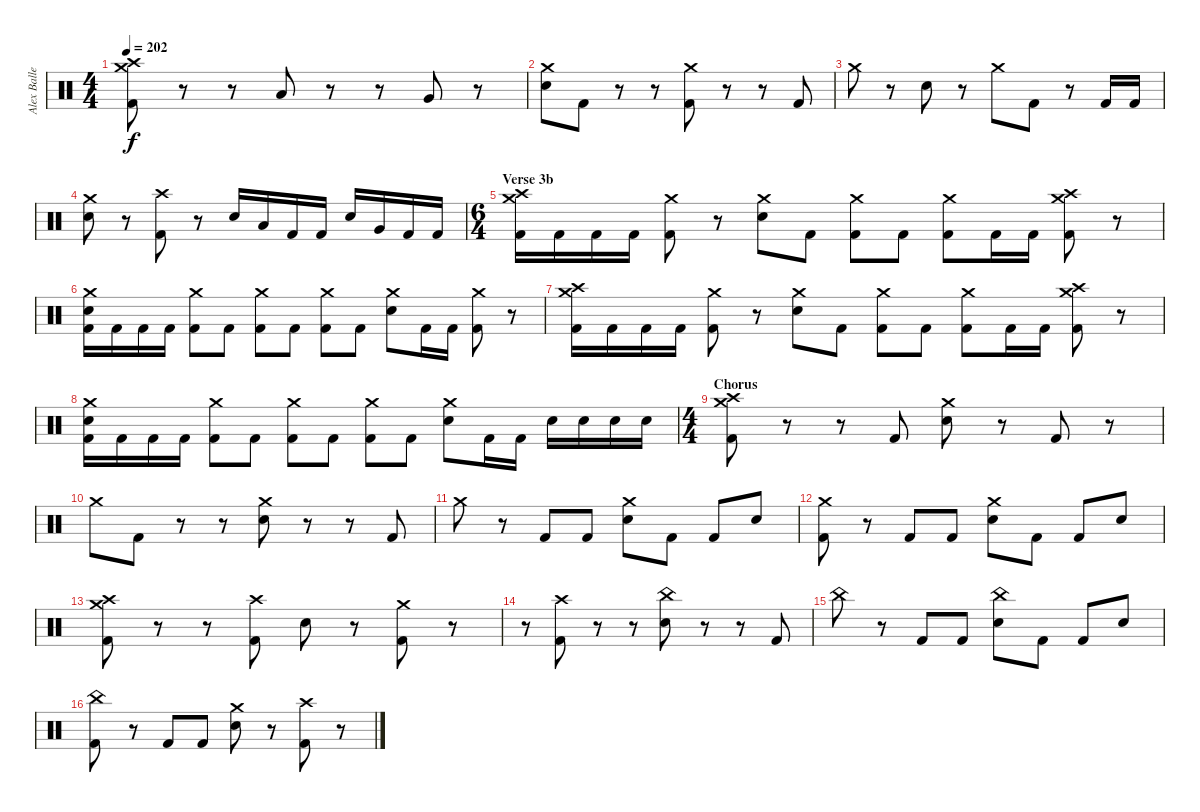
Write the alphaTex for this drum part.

\track ("Alex Ballew" "Alex Balle") {instrument percussion}
\staff {score}
\articulation defaults
\ts (4 4)
\tempo 202
\clef neutral
\ks c
("Crash medium (hit)" "Crash high (hit)" "Kick (hit) 2").8{dy f} r.8 r.8 "Low Tom (hit)".8 r.8 r.8 "Very Low Tom (hit)".8 r.8 |
("Crash medium (hit)" "Electric Snare (hit)").8 "Kick (hit) 2".8 r.8 r.8 ("Crash medium (hit)" "Kick (hit) 2").8 r.8 r.8 "Kick (hit) 2".8 |
"Crash medium (hit)".8 r.8 "Electric Snare (hit)".8 r.8 "Crash medium (hit)".8 "Kick (hit) 2".8 r.8 "Kick (hit) 2".16 "Kick (hit) 2".16 |
("Crash medium (hit)" "Electric Snare (hit)").8 r.8 ("Crash high (hit)" "Kick (hit) 2").8 r.8 "Electric Snare (hit)".16 "Low Tom (hit)".16 "Kick (hit) 2".16 "Kick (hit) 2".16 "Electric Snare (hit)".16 "Very Low Tom (hit)".16 "Kick (hit) 2".16 "Kick (hit) 2".16 |
\ts (6 4)
\section ("" "Verse 3b")
("Crash medium (hit)" "Crash high (hit)" "Kick (hit) 2").16 "Kick (hit) 2".16 "Kick (hit) 2".16 "Kick (hit) 2".16 ("Crash medium (hit)" "Kick (hit) 2").8 r.8 ("Crash medium (hit)" "Electric Snare (hit)").8 "Kick (hit) 2".8 ("Crash medium (hit)" "Kick (hit) 2").8 "Kick (hit) 2".8 ("Crash medium (hit)" "Kick (hit) 2").8 "Kick (hit) 2".16 "Kick (hit) 2".16 ("Crash medium (hit)" "Crash high (hit)" "Kick (hit) 2").8 r.8 |
("Crash medium (hit)" "Electric Snare (hit)" "Kick (hit) 2").16 "Kick (hit) 2".16 "Kick (hit) 2".16 "Kick (hit) 2".16 ("Crash medium (hit)" "Kick (hit) 2").8 "Kick (hit) 2".8 ("Crash medium (hit)" "Kick (hit) 2").8 "Kick (hit) 2".8 ("Crash medium (hit)" "Kick (hit) 2").8 "Kick (hit) 2".8 ("Crash medium (hit)" "Electric Snare (hit)").8 "Kick (hit) 2".16 "Kick (hit) 2".16 ("Crash medium (hit)" "Kick (hit) 2").8 r.8 |
("Crash medium (hit)" "Crash high (hit)" "Kick (hit) 2").16 "Kick (hit) 2".16 "Kick (hit) 2".16 "Kick (hit) 2".16 ("Crash medium (hit)" "Kick (hit) 2").8 r.8 ("Crash medium (hit)" "Electric Snare (hit)").8 "Kick (hit) 2".8 ("Crash medium (hit)" "Kick (hit) 2").8 "Kick (hit) 2".8 ("Crash medium (hit)" "Kick (hit) 2").8 "Kick (hit) 2".16 "Kick (hit) 2".16 ("Crash medium (hit)" "Crash high (hit)" "Kick (hit) 2").8 r.8 |
("Crash medium (hit)" "Electric Snare (hit)" "Kick (hit) 2").16 "Kick (hit) 2".16 "Kick (hit) 2".16 "Kick (hit) 2".16 ("Crash medium (hit)" "Kick (hit) 2").8 "Kick (hit) 2".8 ("Crash medium (hit)" "Kick (hit) 2").8 "Kick (hit) 2".8 ("Crash medium (hit)" "Kick (hit) 2").8 "Kick (hit) 2".8 ("Crash medium (hit)" "Electric Snare (hit)").8 "Kick (hit) 2".16 "Kick (hit) 2".16 "Electric Snare (hit)".16 "Electric Snare (hit)".16 "Electric Snare (hit)".16 "Electric Snare (hit)".16 |
\ts (4 4)
\section ("" "Chorus")
("Crash medium (hit)" "Crash high (hit)" "Kick (hit) 2").8 r.8 r.8 "Kick (hit) 2".8 ("Crash medium (hit)" "Electric Snare (hit)").8 r.8 "Kick (hit) 2".8 r.8 |
"Crash medium (hit)".8 "Kick (hit) 2".8 r.8 r.8 ("Crash medium (hit)" "Electric Snare (hit)").8 r.8 r.8 "Kick (hit) 2".8 |
"Crash medium (hit)".8 r.8 "Kick (hit) 2".8 "Kick (hit) 2".8 ("Crash medium (hit)" "Electric Snare (hit)").8 "Kick (hit) 2".8 "Kick (hit) 2".8 "Electric Snare (hit)".8 |
("Crash medium (hit)" "Kick (hit) 2").8 r.8 "Kick (hit) 2".8 "Kick (hit) 2".8 ("Crash medium (hit)" "Electric Snare (hit)").8 "Kick (hit) 2".8 "Kick (hit) 2".8 "Electric Snare (hit)".8 |
("Crash medium (hit)" "Crash high (hit)" "Kick (hit) 2").8 r.8 r.8 ("Crash high (hit)" "Kick (hit) 2").8 "Electric Snare (hit)".8 r.8 ("Crash medium (hit)" "Kick (hit) 2").8 r.8 |
r.8 ("Crash high (hit)" "Kick (hit) 2").8 r.8 r.8 ("China (hit)" "Electric Snare (hit)").8 r.8 r.8 "Kick (hit) 2".8 |
"China (hit)".8 r.8 "Kick (hit) 2".8 "Kick (hit) 2".8 ("China (hit)" "Electric Snare (hit)").8 "Kick (hit) 2".8 "Kick (hit) 2".8 "Electric Snare (hit)".8 |
("China (hit)" "Kick (hit) 2").8 r.8 "Kick (hit) 2".8 "Kick (hit) 2".8 ("Crash medium (hit)" "Electric Snare (hit)").8 r.8 ("Crash high (hit)" "Kick (hit) 2").8 r.8
